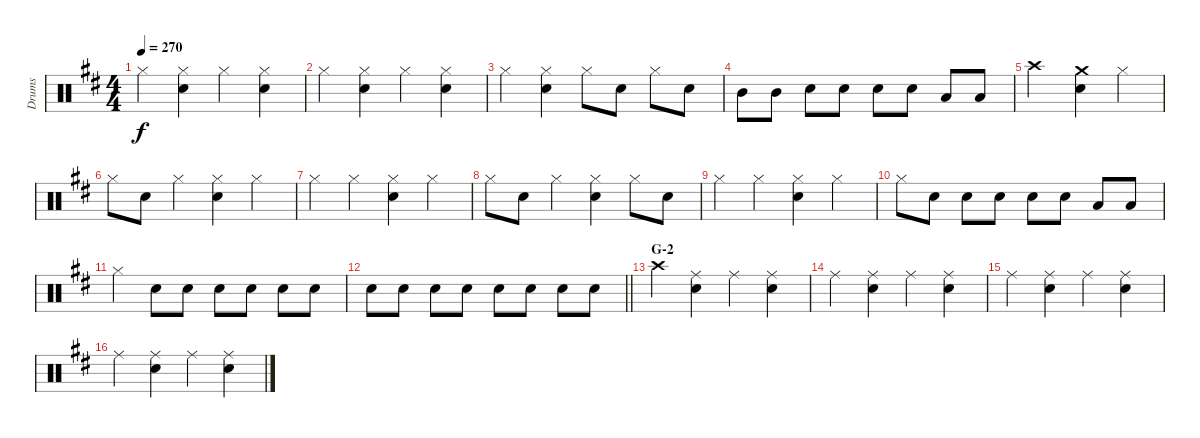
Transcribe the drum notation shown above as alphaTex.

\track ("Drums" "Drums") {instrument percussion}
\staff {score}
\articulation defaults
\ts (4 4)
\tempo 270
\clef neutral
\ks d "Hi-Hat (closed)".4{dy f}
("Hi-Hat (closed)" "Snare (hit) 2").4 "Hi-Hat (closed)".4 ("Hi-Hat (closed)" "Snare (hit) 2").4 |
"Hi-Hat (closed)".4 ("Hi-Hat (closed)" "Snare (hit) 2").4 "Hi-Hat (closed)".4 ("Hi-Hat (closed)" "Snare (hit) 2").4 |
"Hi-Hat (closed)".4 ("Hi-Hat (closed)" "Snare (hit) 2").4 "Hi-Hat (closed)".8 "Snare (hit) 2".8 "Hi-Hat (closed)".8 "Snare (hit) 2".8 |
"Mid Tom (hit)".8 "Mid Tom (hit)".8 "Snare (hit) 2".8 "Snare (hit) 2".8 "Snare (hit) 2".8 "Snare (hit) 2".8 "Low Tom (hit)".8 "Low Tom (hit)".8 |
"Crash high (hit)".2 ("Crash medium (hit)" "Snare (hit) 2").4 "Hi-Hat (closed)".4 |
"Hi-Hat (closed)".8 "Snare (hit) 2".8 "Hi-Hat (closed)".4 ("Hi-Hat (closed)" "Snare (hit) 2").4 "Hi-Hat (closed)".4 |
"Hi-Hat (closed)".4 "Hi-Hat (closed)".4 ("Hi-Hat (closed)" "Snare (hit) 2").4 "Hi-Hat (closed)".4 |
"Hi-Hat (closed)".8 "Snare (hit) 2".8 "Hi-Hat (closed)".4 ("Hi-Hat (closed)" "Snare (hit) 2").4 "Hi-Hat (closed)".8 "Snare (hit) 2".8 |
"Hi-Hat (closed)".4 "Hi-Hat (closed)".4 ("Hi-Hat (closed)" "Snare (hit) 2").4 "Hi-Hat (closed)".4 |
"Hi-Hat (closed)".8 "Snare (hit) 2".8 "Snare (hit) 2".8 "Snare (hit) 2".8 "Snare (hit) 2".8 "Snare (hit) 2".8 "Low Tom (hit)".8 "Low Tom (hit)".8 |
"Hi-Hat (closed)".4 "Snare (hit) 2".8 "Snare (hit) 2".8 "Snare (hit) 2".8 "Snare (hit) 2".8 "Snare (hit) 2".8 "Snare (hit) 2".8 |
\barLineRight lightlight "Snare (hit) 2".8 "Snare (hit) 2".8 "Snare (hit) 2".8 "Snare (hit) 2".8 "Snare (hit) 2".8 "Snare (hit) 2".8 "Snare (hit) 2".8 "Snare (hit) 2".8
|
\section ("" "G-2")
"Crash high (hit)".4 ("Ride (middle)" "Snare (hit) 2").4 "Ride (middle)".4 ("Ride (middle)" "Snare (hit) 2").4 |
"Ride (middle)".4 ("Ride (middle)" "Snare (hit) 2").4 "Ride (middle)".4 ("Ride (middle)" "Snare (hit) 2").4 |
"Ride (middle)".4 ("Ride (middle)" "Snare (hit) 2").4 "Ride (middle)".4 ("Ride (middle)" "Snare (hit) 2").4 |
"Ride (middle)".4 ("Ride (middle)" "Snare (hit) 2").4 "Ride (middle)".4 ("Ride (middle)" "Snare (hit) 2").4
